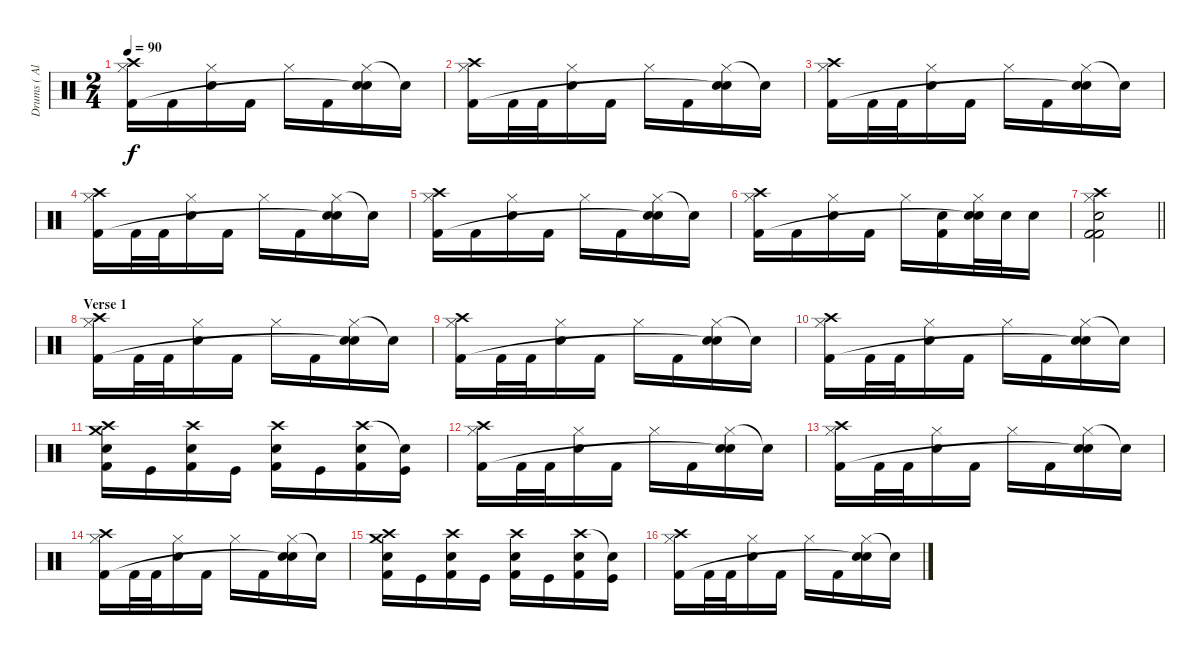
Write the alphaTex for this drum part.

\track ("Drums ( Alex Holzwarth)" "Drums ( Al") {instrument percussion}
\staff {score}
\articulation defaults
\ts (2 4)
\tempo 90
\clef neutral
\ks c
("Crash high (hit)" "Hi-Hat (closed)" "Kick (hit) 2").16{dy f} "Kick (hit) 2".16 ("Hi-Hat (closed)" "Electric Snare (hit)").16 "Kick (hit) 2".16 "Hi-Hat (closed)".16 "Kick (hit) 2".16 ("Hi-Hat (closed)" "Electric Snare (hit)" "Snare (hit)"{t}).16 "Snare (hit)"{t}.16 |
("Crash high (hit)" "Hi-Hat (closed)" "Kick (hit) 2").16 "Kick (hit) 2".32 "Kick (hit) 2".32 ("Hi-Hat (closed)" "Electric Snare (hit)").16 "Kick (hit) 2".16 "Hi-Hat (closed)".16 "Kick (hit) 2".16 ("Hi-Hat (closed)" "Electric Snare (hit)" "Snare (hit)"{t}).16 "Snare (hit)"{t}.16 |
("Crash high (hit)" "Hi-Hat (closed)" "Kick (hit) 2").16 "Kick (hit) 2".32 "Kick (hit) 2".32 ("Hi-Hat (closed)" "Electric Snare (hit)").16 "Kick (hit) 2".16 "Hi-Hat (closed)".16 "Kick (hit) 2".16 ("Hi-Hat (closed)" "Electric Snare (hit)" "Snare (hit)"{t}).16 "Snare (hit)"{t}.16 |
("Crash high (hit)" "Hi-Hat (closed)" "Kick (hit) 2").16 "Kick (hit) 2".32 "Kick (hit) 2".32 ("Hi-Hat (closed)" "Electric Snare (hit)").16 "Kick (hit) 2".16 "Hi-Hat (closed)".16 "Kick (hit) 2".16 ("Hi-Hat (closed)" "Electric Snare (hit)" "Snare (hit)"{t}).16 "Snare (hit)"{t}.16 |
("Crash high (hit)" "Hi-Hat (closed)" "Kick (hit) 2").16 "Kick (hit) 2".16 ("Hi-Hat (closed)" "Electric Snare (hit)").16 "Kick (hit) 2".16 "Hi-Hat (closed)".16 "Kick (hit) 2".16 ("Hi-Hat (closed)" "Electric Snare (hit)" "Snare (hit)"{t}).16 "Snare (hit)"{t}.16 |
("Crash high (hit)" "Hi-Hat (closed)" "Kick (hit) 2").16 "Kick (hit) 2".16 ("Hi-Hat (closed)" "Electric Snare (hit)").16 "Kick (hit) 2".16 "Hi-Hat (closed)".16 ("Electric Snare (hit)" "Kick (hit) 2").16 ("Hi-Hat (closed)" "Electric Snare (hit)" "Snare (hit)"{t}).32 "Electric Snare (hit)".32 "Electric Snare (hit)".16 |
\barLineRight lightlight
("Crash high (hit)" "Hi-Hat (closed)" "Electric Snare (hit)" "Kick (hit) 2" "Kick (hit) 2").2 |
\section ("" "Verse 1")
("Crash high (hit)" "Hi-Hat (closed)" "Kick (hit) 2").16 "Kick (hit) 2".32 "Kick (hit) 2".32 ("Hi-Hat (closed)" "Electric Snare (hit)").16 "Kick (hit) 2".16 "Hi-Hat (closed)".16 "Kick (hit) 2".16 ("Hi-Hat (closed)" "Electric Snare (hit)" "Snare (hit)"{t}).16 "Snare (hit)"{t}.16 |
("Crash high (hit)" "Hi-Hat (closed)" "Kick (hit) 2").16 "Kick (hit) 2".32 "Kick (hit) 2".32 ("Hi-Hat (closed)" "Electric Snare (hit)").16 "Kick (hit) 2".16 "Hi-Hat (closed)".16 "Kick (hit) 2".16 ("Hi-Hat (closed)" "Electric Snare (hit)" "Snare (hit)"{t}).16 "Snare (hit)"{t}.16 |
("Crash high (hit)" "Hi-Hat (closed)" "Kick (hit) 2").16 "Kick (hit) 2".32 "Kick (hit) 2".32 ("Hi-Hat (closed)" "Electric Snare (hit)").16 "Kick (hit) 2".16 "Hi-Hat (closed)".16 "Kick (hit) 2".16 ("Hi-Hat (closed)" "Electric Snare (hit)" "Snare (hit)"{t}).16 "Snare (hit)"{t}.16 |
("Crash high (hit)" "Crash medium (hit)" "Snare (hit) 2" "Kick (hit) 2").16 "Kick (hit)".16 ("Crash high (hit)" "Snare (hit) 2" "Kick (hit) 2").16 "Kick (hit)".16 ("Crash high (hit)" "Snare (hit) 2" "Kick (hit) 2").16 "Kick (hit)".16 ("Crash high (hit)" "Snare (hit) 2" "Kick (hit) 2").16 ("Snare (hit)"{t} "Kick (hit)").16 |
("Crash high (hit)" "Hi-Hat (closed)" "Kick (hit) 2").16 "Kick (hit) 2".32 "Kick (hit) 2".32 ("Hi-Hat (closed)" "Electric Snare (hit)").16 "Kick (hit) 2".16 "Hi-Hat (closed)".16 "Kick (hit) 2".16 ("Hi-Hat (closed)" "Electric Snare (hit)" "Snare (hit)"{t}).16 "Snare (hit)"{t}.16 |
("Crash high (hit)" "Hi-Hat (closed)" "Kick (hit) 2").16 "Kick (hit) 2".32 "Kick (hit) 2".32 ("Hi-Hat (closed)" "Electric Snare (hit)").16 "Kick (hit) 2".16 "Hi-Hat (closed)".16 "Kick (hit) 2".16 ("Hi-Hat (closed)" "Electric Snare (hit)" "Snare (hit)"{t}).16 "Snare (hit)"{t}.16 |
("Crash high (hit)" "Hi-Hat (closed)" "Kick (hit) 2").16 "Kick (hit) 2".32 "Kick (hit) 2".32 ("Hi-Hat (closed)" "Electric Snare (hit)").16 "Kick (hit) 2".16 "Hi-Hat (closed)".16 "Kick (hit) 2".16 ("Hi-Hat (closed)" "Electric Snare (hit)" "Snare (hit)"{t}).16 "Snare (hit)"{t}.16 |
("Crash high (hit)" "Crash medium (hit)" "Snare (hit) 2" "Kick (hit) 2").16 "Kick (hit)".16 ("Crash high (hit)" "Snare (hit) 2" "Kick (hit) 2").16 "Kick (hit)".16 ("Crash high (hit)" "Snare (hit) 2" "Kick (hit) 2").16 "Kick (hit)".16 ("Crash high (hit)" "Snare (hit) 2" "Kick (hit) 2").16 ("Snare (hit)"{t} "Kick (hit)").16 |
("Crash high (hit)" "Hi-Hat (closed)" "Kick (hit) 2").16 "Kick (hit) 2".32 "Kick (hit) 2".32 ("Hi-Hat (closed)" "Electric Snare (hit)").16 "Kick (hit) 2".16 "Hi-Hat (closed)".16 "Kick (hit) 2".16 ("Hi-Hat (closed)" "Electric Snare (hit)" "Snare (hit)"{t}).16 "Snare (hit)"{t}.16
